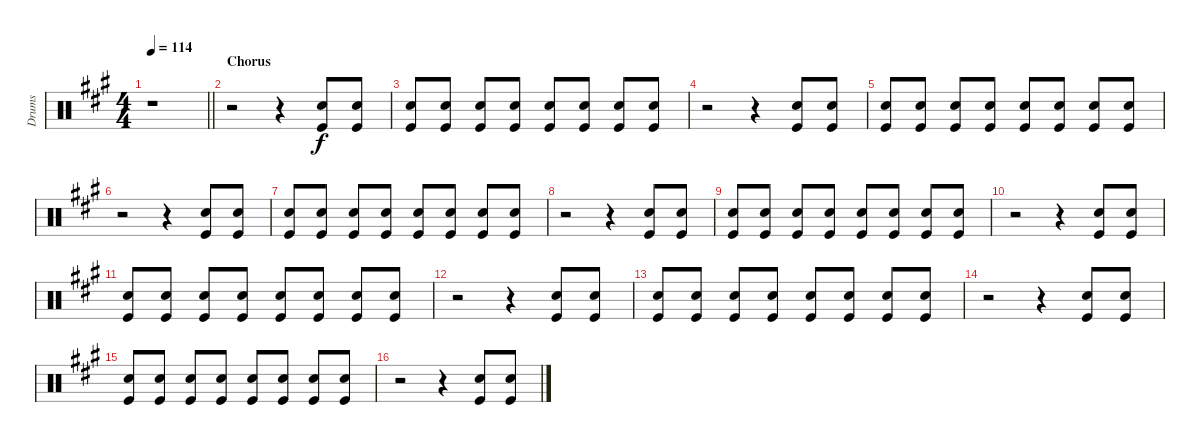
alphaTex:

\track ("Drums" "Drums") {instrument percussion}
\staff {score}
\articulation defaults
\ts (4 4)
\tempo 114
\clef neutral
\barLineRight lightlight
\ks f#minor
r.1{dy f} |
\section ("" "Chorus")
r.2{volume 0} r.4 ("Snare (hit) 2" "Kick (hit)").8{volume 4} ("Snare (hit) 2" "Kick (hit)").8 |
("Snare (hit) 2" "Kick (hit)").8 ("Snare (hit) 2" "Kick (hit)").8 ("Snare (hit) 2" "Kick (hit)").8 ("Snare (hit) 2" "Kick (hit)").8 ("Snare (hit) 2" "Kick (hit)").8 ("Snare (hit) 2" "Kick (hit)").8 ("Snare (hit) 2" "Kick (hit)").8 ("Snare (hit) 2" "Kick (hit)").8 |
r.2{volume 0} r.4 ("Snare (hit) 2" "Kick (hit)").8{volume 4} ("Snare (hit) 2" "Kick (hit)").8 |
("Snare (hit) 2" "Kick (hit)").8 ("Snare (hit) 2" "Kick (hit)").8 ("Snare (hit) 2" "Kick (hit)").8 ("Snare (hit) 2" "Kick (hit)").8 ("Snare (hit) 2" "Kick (hit)").8 ("Snare (hit) 2" "Kick (hit)").8 ("Snare (hit) 2" "Kick (hit)").8 ("Snare (hit) 2" "Kick (hit)").8 |
r.2{volume 0} r.4 ("Snare (hit) 2" "Kick (hit)").8{volume 4} ("Snare (hit) 2" "Kick (hit)").8 |
("Snare (hit) 2" "Kick (hit)").8 ("Snare (hit) 2" "Kick (hit)").8 ("Snare (hit) 2" "Kick (hit)").8 ("Snare (hit) 2" "Kick (hit)").8 ("Snare (hit) 2" "Kick (hit)").8 ("Snare (hit) 2" "Kick (hit)").8 ("Snare (hit) 2" "Kick (hit)").8 ("Snare (hit) 2" "Kick (hit)").8 |
r.2{volume 0} r.4 ("Snare (hit) 2" "Kick (hit)").8{volume 2} ("Snare (hit) 2" "Kick (hit)").8 |
("Snare (hit) 2" "Kick (hit)").8 ("Snare (hit) 2" "Kick (hit)").8 ("Snare (hit) 2" "Kick (hit)").8 ("Snare (hit) 2" "Kick (hit)").8 ("Snare (hit) 2" "Kick (hit)").8 ("Snare (hit) 2" "Kick (hit)").8 ("Snare (hit) 2" "Kick (hit)").8 ("Snare (hit) 2" "Kick (hit)").8 |
r.2{volume 0} r.4 ("Snare (hit) 2" "Kick (hit)").8{volume 4} ("Snare (hit) 2" "Kick (hit)").8 |
("Snare (hit) 2" "Kick (hit)").8 ("Snare (hit) 2" "Kick (hit)").8 ("Snare (hit) 2" "Kick (hit)").8 ("Snare (hit) 2" "Kick (hit)").8 ("Snare (hit) 2" "Kick (hit)").8 ("Snare (hit) 2" "Kick (hit)").8 ("Snare (hit) 2" "Kick (hit)").8 ("Snare (hit) 2" "Kick (hit)").8 |
r.2{volume 0} r.4 ("Snare (hit) 2" "Kick (hit)").8{volume 6} ("Snare (hit) 2" "Kick (hit)").8 |
("Snare (hit) 2" "Kick (hit)").8 ("Snare (hit) 2" "Kick (hit)").8 ("Snare (hit) 2" "Kick (hit)").8 ("Snare (hit) 2" "Kick (hit)").8 ("Snare (hit) 2" "Kick (hit)").8 ("Snare (hit) 2" "Kick (hit)").8 ("Snare (hit) 2" "Kick (hit)").8 ("Snare (hit) 2" "Kick (hit)").8 |
r.2{volume 0} r.4 ("Snare (hit) 2" "Kick (hit)").8{volume 8} ("Snare (hit) 2" "Kick (hit)").8 |
("Snare (hit) 2" "Kick (hit)").8 ("Snare (hit) 2" "Kick (hit)").8 ("Snare (hit) 2" "Kick (hit)").8 ("Snare (hit) 2" "Kick (hit)").8 ("Snare (hit) 2" "Kick (hit)").8 ("Snare (hit) 2" "Kick (hit)").8 ("Snare (hit) 2" "Kick (hit)").8 ("Snare (hit) 2" "Kick (hit)").8 |
r.2{volume 0} r.4 ("Snare (hit) 2" "Kick (hit)").8{volume 10} ("Snare (hit) 2" "Kick (hit)").8
